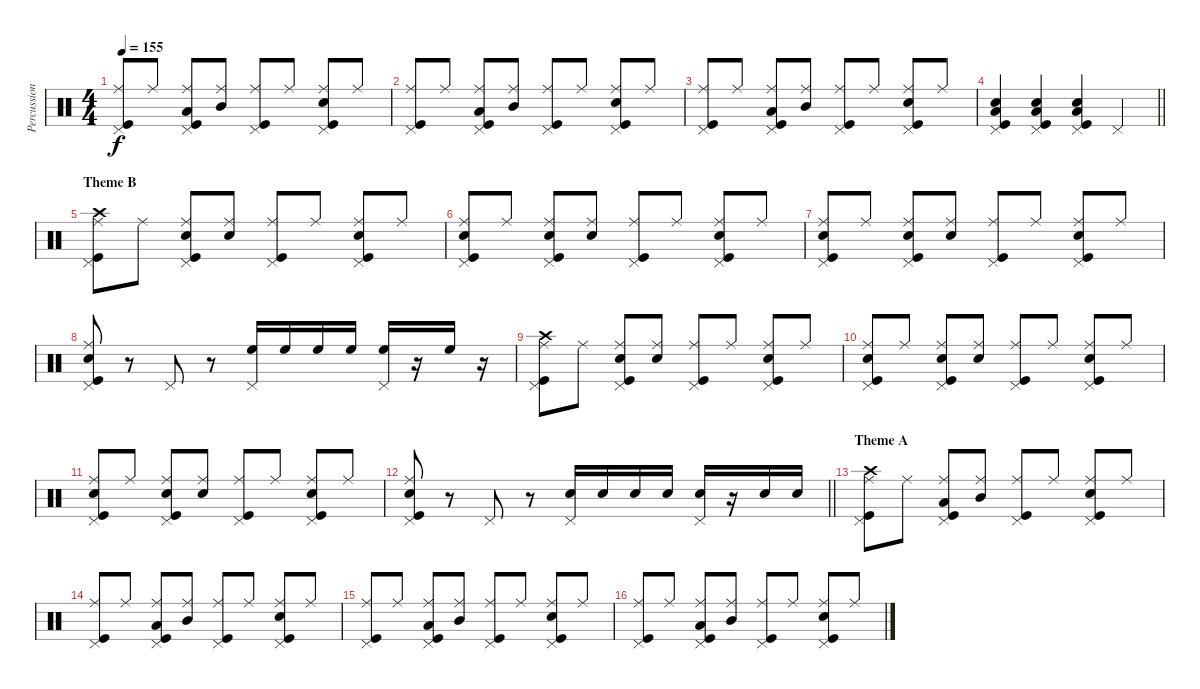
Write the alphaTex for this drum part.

\track ("Percussion" "Percussion") {instrument percussion}
\staff {score}
\articulation defaults
\ts (4 4)
\tempo 155
\clef neutral
\ks c
("Pedal Hi-Hat (hit)" "Ride (middle)" "Kick (hit)").8{dy f} "Ride (middle)".8 ("Pedal Hi-Hat (hit)" "Ride (middle)" "Low Tom (hit)" "Kick (hit)").8 ("Ride (middle)" "Mid Tom (hit)").8 ("Pedal Hi-Hat (hit)" "Ride (middle)" "Kick (hit)").8 "Ride (middle)".8 ("Pedal Hi-Hat (hit)" "Ride (middle)" "Electric Snare (hit)" "Kick (hit)").8 "Ride (middle)".8 |
("Pedal Hi-Hat (hit)" "Ride (middle)" "Kick (hit)").8 "Ride (middle)".8 ("Pedal Hi-Hat (hit)" "Ride (middle)" "Low Tom (hit)" "Kick (hit)").8 ("Ride (middle)" "Mid Tom (hit)").8 ("Pedal Hi-Hat (hit)" "Ride (middle)" "Kick (hit)").8 "Ride (middle)".8 ("Pedal Hi-Hat (hit)" "Ride (middle)" "Electric Snare (hit)" "Kick (hit)").8 "Ride (middle)".8 |
("Pedal Hi-Hat (hit)" "Ride (middle)" "Kick (hit)").8 "Ride (middle)".8 ("Pedal Hi-Hat (hit)" "Ride (middle)" "Low Tom (hit)" "Kick (hit)").8 ("Ride (middle)" "Mid Tom (hit)").8 ("Pedal Hi-Hat (hit)" "Ride (middle)" "Kick (hit)").8 "Ride (middle)".8 ("Pedal Hi-Hat (hit)" "Ride (middle)" "Electric Snare (hit)" "Kick (hit)").8 "Ride (middle)".8 |
\barLineRight lightlight
("Pedal Hi-Hat (hit)" "Electric Snare (hit)" "Low Tom (hit)" "Kick (hit)").4 ("Pedal Hi-Hat (hit)" "Electric Snare (hit)" "Low Tom (hit)" "Kick (hit)").4 ("Pedal Hi-Hat (hit)" "Electric Snare (hit)" "Low Tom (hit)" "Kick (hit)").4 "Pedal Hi-Hat (hit)".4 |
\section ("" "Theme B")
("Pedal Hi-Hat (hit)" "Ride (middle)" "Crash high (hit)" "Kick (hit)").8 "Ride (middle)".8 ("Pedal Hi-Hat (hit)" "Ride (middle)" "Electric Snare (hit)" "Kick (hit)").8 ("Ride (middle)" "Electric Snare (hit)").8 ("Pedal Hi-Hat (hit)" "Ride (middle)" "Kick (hit)").8 "Ride (middle)".8 ("Pedal Hi-Hat (hit)" "Ride (middle)" "Electric Snare (hit)" "Kick (hit)").8 "Ride (middle)".8 |
("Pedal Hi-Hat (hit)" "Ride (middle)" "Electric Snare (hit)" "Kick (hit)").8 "Ride (middle)".8 ("Pedal Hi-Hat (hit)" "Ride (middle)" "Electric Snare (hit)" "Kick (hit)").8 ("Ride (middle)" "Electric Snare (hit)").8 ("Pedal Hi-Hat (hit)" "Ride (middle)" "Kick (hit)").8 "Ride (middle)".8 ("Pedal Hi-Hat (hit)" "Ride (middle)" "Electric Snare (hit)" "Kick (hit)").8 "Ride (middle)".8 |
("Pedal Hi-Hat (hit)" "Ride (middle)" "Electric Snare (hit)" "Kick (hit)").8 "Ride (middle)".8 ("Pedal Hi-Hat (hit)" "Ride (middle)" "Electric Snare (hit)" "Kick (hit)").8 ("Ride (middle)" "Electric Snare (hit)").8 ("Pedal Hi-Hat (hit)" "Ride (middle)" "Kick (hit)").8 "Ride (middle)".8 ("Pedal Hi-Hat (hit)" "Ride (middle)" "Electric Snare (hit)" "Kick (hit)").8 "Ride (middle)".8 |
("Pedal Hi-Hat (hit)" "Ride (middle)" "Electric Snare (hit)" "Kick (hit)").8 r.8 "Pedal Hi-Hat (hit)".8 r.8 ("Pedal Hi-Hat (hit)" "High Floor Tom (hit)").16 "High Floor Tom (hit)".16 "High Floor Tom (hit)".16 "High Floor Tom (hit)".16 ("Pedal Hi-Hat (hit)" "High Floor Tom (hit)").16 r.16 "High Floor Tom (hit)".16 r.16 |
("Pedal Hi-Hat (hit)" "Ride (middle)" "Crash high (hit)" "Kick (hit)").8 "Ride (middle)".8 ("Pedal Hi-Hat (hit)" "Ride (middle)" "Electric Snare (hit)" "Kick (hit)").8 ("Ride (middle)" "Electric Snare (hit)").8 ("Pedal Hi-Hat (hit)" "Ride (middle)" "Kick (hit)").8 "Ride (middle)".8 ("Pedal Hi-Hat (hit)" "Ride (middle)" "Electric Snare (hit)" "Kick (hit)").8 "Ride (middle)".8 |
("Pedal Hi-Hat (hit)" "Ride (middle)" "Electric Snare (hit)" "Kick (hit)").8 "Ride (middle)".8 ("Pedal Hi-Hat (hit)" "Ride (middle)" "Electric Snare (hit)" "Kick (hit)").8 ("Ride (middle)" "Electric Snare (hit)").8 ("Pedal Hi-Hat (hit)" "Ride (middle)" "Kick (hit)").8 "Ride (middle)".8 ("Pedal Hi-Hat (hit)" "Ride (middle)" "Electric Snare (hit)" "Kick (hit)").8 "Ride (middle)".8 |
("Pedal Hi-Hat (hit)" "Ride (middle)" "Electric Snare (hit)" "Kick (hit)").8 "Ride (middle)".8 ("Pedal Hi-Hat (hit)" "Ride (middle)" "Electric Snare (hit)" "Kick (hit)").8 ("Ride (middle)" "Electric Snare (hit)").8 ("Pedal Hi-Hat (hit)" "Ride (middle)" "Kick (hit)").8 "Ride (middle)".8 ("Pedal Hi-Hat (hit)" "Ride (middle)" "Electric Snare (hit)" "Kick (hit)").8 "Ride (middle)".8 |
\barLineRight lightlight
("Pedal Hi-Hat (hit)" "Ride (middle)" "Electric Snare (hit)" "Kick (hit)").8 r.8 "Pedal Hi-Hat (hit)".8 r.8 ("Pedal Hi-Hat (hit)" "Electric Snare (hit)").16 "Electric Snare (hit)".16 "Electric Snare (hit)".16 "Electric Snare (hit)".16 ("Pedal Hi-Hat (hit)" "Electric Snare (hit)").16 r.16 "Electric Snare (hit)".16 "Electric Snare (hit)".16 |
\section ("" "Theme A")
("Pedal Hi-Hat (hit)" "Ride (middle)" "Crash high (hit)" "Kick (hit)").8 "Ride (middle)".8 ("Pedal Hi-Hat (hit)" "Ride (middle)" "Low Tom (hit)" "Kick (hit)").8 ("Ride (middle)" "Mid Tom (hit)").8 ("Pedal Hi-Hat (hit)" "Ride (middle)" "Kick (hit)").8 "Ride (middle)".8 ("Pedal Hi-Hat (hit)" "Ride (middle)" "Electric Snare (hit)" "Kick (hit)").8 "Ride (middle)".8 |
("Pedal Hi-Hat (hit)" "Ride (middle)" "Kick (hit)").8 "Ride (middle)".8 ("Pedal Hi-Hat (hit)" "Ride (middle)" "Low Tom (hit)" "Kick (hit)").8 ("Ride (middle)" "Mid Tom (hit)").8 ("Pedal Hi-Hat (hit)" "Ride (middle)" "Kick (hit)").8 "Ride (middle)".8 ("Pedal Hi-Hat (hit)" "Ride (middle)" "Electric Snare (hit)" "Kick (hit)").8 "Ride (middle)".8 |
("Pedal Hi-Hat (hit)" "Ride (middle)" "Kick (hit)").8 "Ride (middle)".8 ("Pedal Hi-Hat (hit)" "Ride (middle)" "Low Tom (hit)" "Kick (hit)").8 ("Ride (middle)" "Mid Tom (hit)").8 ("Pedal Hi-Hat (hit)" "Ride (middle)" "Kick (hit)").8 "Ride (middle)".8 ("Pedal Hi-Hat (hit)" "Ride (middle)" "Electric Snare (hit)" "Kick (hit)").8 "Ride (middle)".8 |
("Pedal Hi-Hat (hit)" "Ride (middle)" "Kick (hit)").8 "Ride (middle)".8 ("Pedal Hi-Hat (hit)" "Ride (middle)" "Low Tom (hit)" "Kick (hit)").8 ("Ride (middle)" "Mid Tom (hit)").8 ("Pedal Hi-Hat (hit)" "Ride (middle)" "Kick (hit)").8 "Ride (middle)".8 ("Pedal Hi-Hat (hit)" "Ride (middle)" "Electric Snare (hit)" "Kick (hit)").8 "Ride (middle)".8
